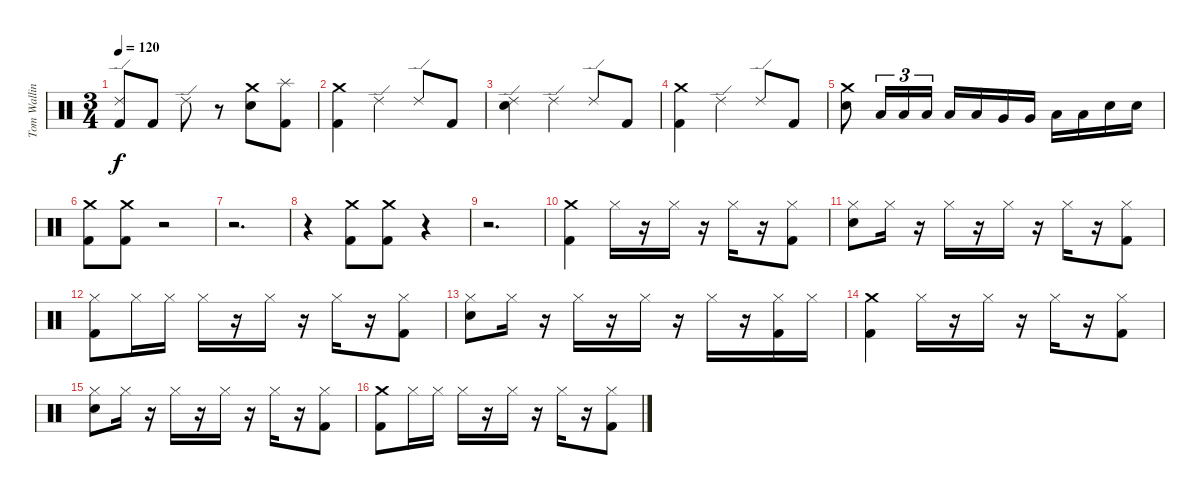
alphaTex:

\track ("Tom Walling (Drums)" "Tom Wallin") {instrument percussion}
\staff {score}
\articulation defaults
\ts (3 4)
\tempo 120
\clef neutral
\ks c
("Ride (edge) 2" "Kick (hit) 2").8{dy f} "Kick (hit) 2".8 "Ride (edge) 2".8 r.8 ("Crash medium (hit)" "Electric Snare (hit)").8 ("Splash (hit)" "Kick (hit) 2").8 |
("Crash medium (hit)" "Kick (hit) 2").4 "Ride (edge) 2".4 "Ride (edge) 2".8 "Kick (hit) 2".8 |
("Ride (edge) 2" "Electric Snare (hit)").4 "Ride (edge) 2".4 "Ride (edge) 2".8 "Kick (hit) 2".8 |
("Crash medium (hit)" "Kick (hit) 2").4 "Ride (edge) 2".4 "Ride (edge) 2".8 "Kick (hit) 2".8 |
("Crash medium (hit)" "Electric Snare (hit)").8 "Low Tom (hit)".16{tu (3 2)} "Low Tom (hit)".16{tu (3 2)} "Low Tom (hit)".16{tu (3 2)} "Low Tom (hit)".16 "Low Tom (hit)".16 "Very Low Tom (hit)".16 "Very Low Tom (hit)".16 "Low Floor Tom (hit)".16 "Low Floor Tom (hit)".16 "Electric Snare (hit)".16 "Electric Snare (hit)".16 |
("Crash medium (hit)" "Kick (hit) 2").8 ("Crash medium (hit)" "Kick (hit) 2").8 r.2 |
r.2{d} |
r.4 ("Crash medium (hit)" "Kick (hit) 2").8 ("Crash medium (hit)" "Kick (hit) 2").8 r.4 |
r.2{d} |
("Crash medium (hit)" "Kick (hit) 2").4 "Hi-Hat (closed)".16 r.16 "Hi-Hat (closed)".16 r.16 "Hi-Hat (closed)".16 r.16 ("Hi-Hat (closed)" "Kick (hit) 2").8 |
("Hi-Hat (closed)" "Electric Snare (hit)").8 "Hi-Hat (closed)".16 r.16 "Hi-Hat (closed)".16 r.16 "Hi-Hat (closed)".16 r.16 "Hi-Hat (closed)".16 r.16 ("Hi-Hat (closed)" "Kick (hit) 2").8 |
("Hi-Hat (closed)" "Kick (hit) 2").8 "Hi-Hat (closed)".16 "Hi-Hat (closed)".16 "Hi-Hat (closed)".16 r.16 "Hi-Hat (closed)".16 r.16 "Hi-Hat (closed)".16 r.16 ("Hi-Hat (closed)" "Kick (hit) 2").8 |
("Hi-Hat (closed)" "Electric Snare (hit)").8 "Hi-Hat (closed)".16 r.16 "Hi-Hat (closed)".16 r.16 "Hi-Hat (closed)".16 r.16 "Hi-Hat (closed)".16 r.16 ("Hi-Hat (closed)" "Kick (hit) 2").16 "Hi-Hat (closed)".16 |
("Crash medium (hit)" "Kick (hit) 2").4 "Hi-Hat (closed)".16 r.16 "Hi-Hat (closed)".16 r.16 "Hi-Hat (closed)".16 r.16 ("Hi-Hat (closed)" "Kick (hit) 2").8 |
("Hi-Hat (closed)" "Electric Snare (hit)").8 "Hi-Hat (closed)".16 r.16 "Hi-Hat (closed)".16 r.16 "Hi-Hat (closed)".16 r.16 "Hi-Hat (closed)".16 r.16 ("Hi-Hat (closed)" "Kick (hit) 2").8 |
("Crash medium (hit)" "Kick (hit) 2").8 "Hi-Hat (closed)".16 "Hi-Hat (closed)".16 "Hi-Hat (closed)".16 r.16 "Hi-Hat (closed)".16 r.16 "Hi-Hat (closed)".16 r.16 ("Hi-Hat (closed)" "Kick (hit) 2").8
